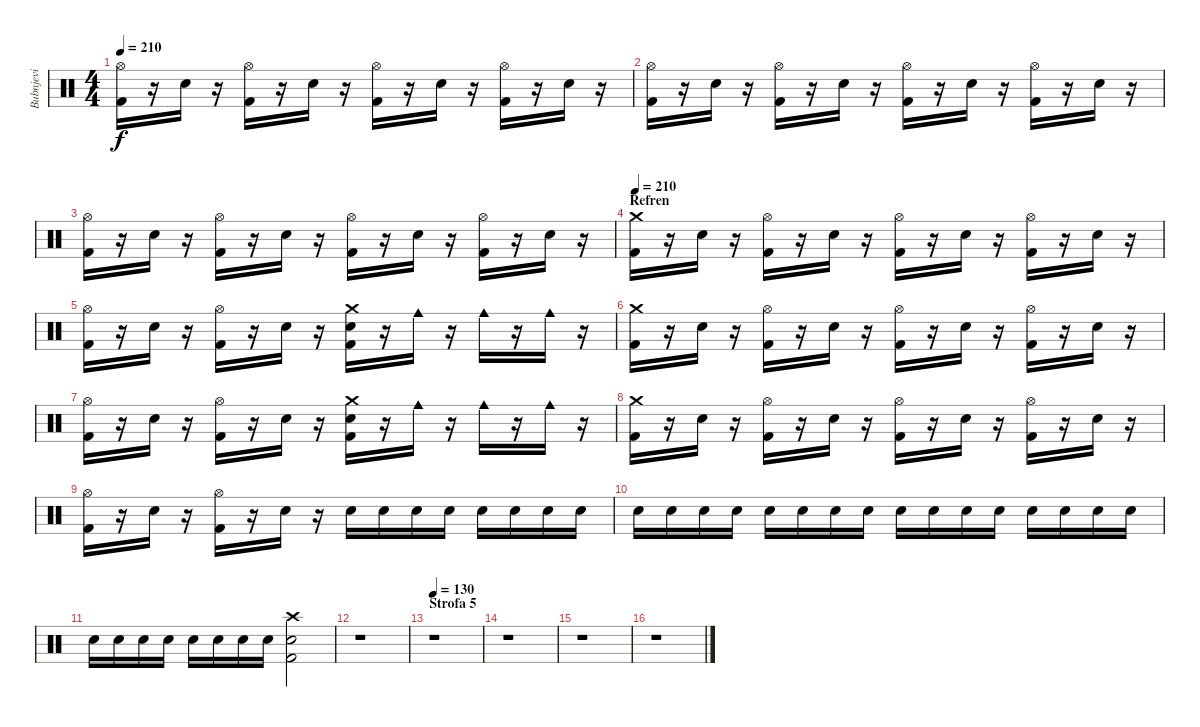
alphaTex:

\track ("Bubnjevi" "Bubnjevi") {instrument percussion}
\staff {score}
\articulation defaults
\ts (4 4)
\tempo 210
\clef neutral
\ks c
("Hi-Hat (open)" "Kick (hit) 2").16{dy f} r.16 "Snare (hit) 2".16 r.16 ("Hi-Hat (open)" "Kick (hit) 2").16 r.16 "Snare (hit) 2".16 r.16 ("Hi-Hat (open)" "Kick (hit) 2").16 r.16 "Snare (hit) 2".16 r.16 ("Hi-Hat (open)" "Kick (hit) 2").16 r.16 "Snare (hit) 2".16 r.16 |
("Hi-Hat (open)" "Kick (hit) 2").16 r.16 "Snare (hit) 2".16 r.16 ("Hi-Hat (open)" "Kick (hit) 2").16 r.16 "Snare (hit) 2".16 r.16 ("Hi-Hat (open)" "Kick (hit) 2").16 r.16 "Snare (hit) 2".16 r.16 ("Hi-Hat (open)" "Kick (hit) 2").16 r.16 "Snare (hit) 2".16 r.16 |
("Hi-Hat (open)" "Kick (hit) 2").16 r.16 "Snare (hit) 2".16 r.16 ("Hi-Hat (open)" "Kick (hit) 2").16 r.16 "Snare (hit) 2".16 r.16 ("Hi-Hat (open)" "Kick (hit) 2").16 r.16 "Snare (hit) 2".16 r.16 ("Hi-Hat (open)" "Kick (hit) 2").16 r.16 "Snare (hit) 2".16 r.16 |
\section ("" "Refren")
\tempo 210
("Kick (hit) 2" "Crash medium (hit)").16 r.16 "Snare (hit) 2".16 r.16 ("Hi-Hat (open)" "Kick (hit) 2").16 r.16 "Snare (hit) 2".16 r.16 ("Hi-Hat (open)" "Kick (hit) 2").16 r.16 "Snare (hit) 2".16 r.16 ("Hi-Hat (open)" "Kick (hit) 2").16 r.16 "Snare (hit) 2".16 r.16 |
("Hi-Hat (open)" "Kick (hit) 2").16 r.16 "Snare (hit) 2".16 r.16 ("Hi-Hat (open)" "Kick (hit) 2").16 r.16 "Snare (hit) 2".16 r.16 ("Kick (hit) 2" "Snare (hit) 2" "Crash medium (hit)").16 r.16 "Cowbell medium (hit)".16 r.16 "Cowbell medium (hit)".16 r.16 "Cowbell medium (hit)".16 r.16 |
("Kick (hit) 2" "Crash medium (hit)").16 r.16 "Snare (hit) 2".16 r.16 ("Hi-Hat (open)" "Kick (hit) 2").16 r.16 "Snare (hit) 2".16 r.16 ("Hi-Hat (open)" "Kick (hit) 2").16 r.16 "Snare (hit) 2".16 r.16 ("Hi-Hat (open)" "Kick (hit) 2").16 r.16 "Snare (hit) 2".16 r.16 |
("Hi-Hat (open)" "Kick (hit) 2").16 r.16 "Snare (hit) 2".16 r.16 ("Hi-Hat (open)" "Kick (hit) 2").16 r.16 "Snare (hit) 2".16 r.16 ("Kick (hit) 2" "Snare (hit) 2" "Crash medium (hit)").16 r.16 "Cowbell medium (hit)".16 r.16 "Cowbell medium (hit)".16 r.16 "Cowbell medium (hit)".16 r.16 |
("Kick (hit) 2" "Crash medium (hit)").16 r.16 "Snare (hit) 2".16 r.16 ("Hi-Hat (open)" "Kick (hit) 2").16 r.16 "Snare (hit) 2".16 r.16 ("Hi-Hat (open)" "Kick (hit) 2").16 r.16 "Snare (hit) 2".16 r.16 ("Hi-Hat (open)" "Kick (hit) 2").16 r.16 "Snare (hit) 2".16 r.16 |
("Hi-Hat (open)" "Kick (hit) 2").16 r.16 "Snare (hit) 2".16 r.16 ("Hi-Hat (open)" "Kick (hit) 2").16 r.16 "Snare (hit) 2".16 r.16 "Snare (hit) 2".16 "Snare (hit) 2".16 "Snare (hit) 2".16 "Snare (hit) 2".16 "Snare (hit) 2".16 "Snare (hit) 2".16 "Snare (hit) 2".16 "Snare (hit) 2".16 |
"Snare (hit) 2".16 "Snare (hit) 2".16 "Snare (hit) 2".16 "Snare (hit) 2".16 "Snare (hit) 2".16 "Snare (hit) 2".16 "Snare (hit) 2".16 "Snare (hit) 2".16 "Snare (hit) 2".16 "Snare (hit) 2".16 "Snare (hit) 2".16 "Snare (hit) 2".16 "Snare (hit) 2".16 "Snare (hit) 2".16 "Snare (hit) 2".16 "Snare (hit) 2".16 |
"Snare (hit) 2".16 "Snare (hit) 2".16 "Snare (hit) 2".16 "Snare (hit) 2".16 "Snare (hit) 2".16 "Snare (hit) 2".16 "Snare (hit) 2".16 "Snare (hit) 2".16 ("Kick (hit) 2" "Snare (hit) 2" "Crash high (hit)").2 |
r.1 |
\section ("" "Strofa 5")
\tempo 130
r.1 |
r.1 |
r.1 |
r.1
